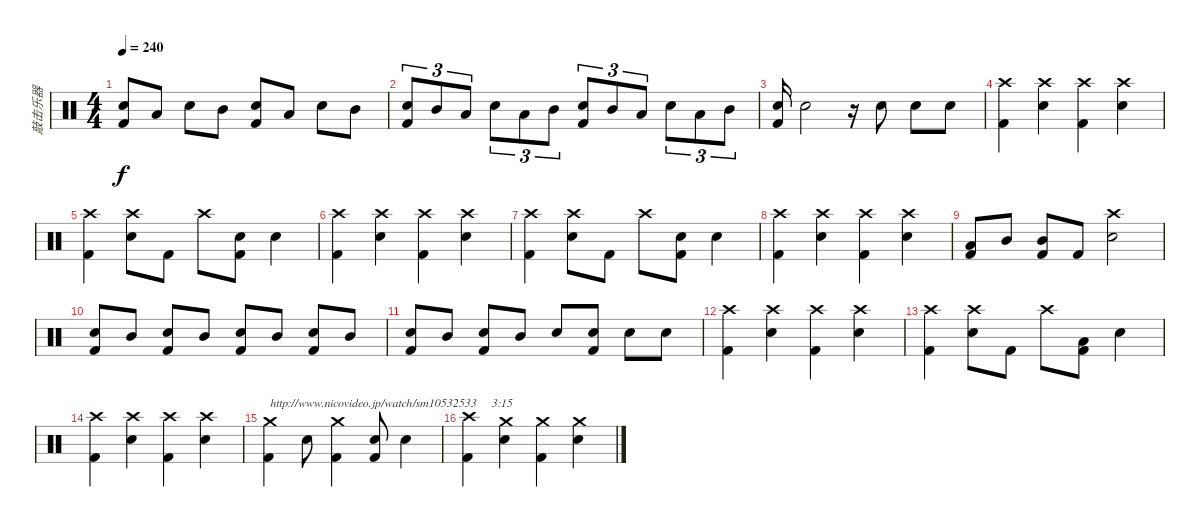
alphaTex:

\track ("敲击乐器" "敲击乐器") {instrument percussion}
\staff {score}
\articulation defaults
\ts (4 4)
\tempo 240
\clef neutral
\ks c
("Snare (hit) 2" "Kick (hit) 2").8{dy f} "Low Tom (hit)".8 "Electric Snare (hit)".8 "Mid Tom (hit)".8 ("Snare (hit) 2" "Kick (hit) 2").8 "Low Tom (hit)".8 "Electric Snare (hit)".8 "Mid Tom (hit)".8 |
("Snare (hit) 2" "Kick (hit) 2").8{tu (3 2)} "Mid Tom (hit)".8{tu (3 2)} "Low Tom (hit)".8{tu (3 2)} "Electric Snare (hit)".8{tu (3 2)} "Low Tom (hit)".8{tu (3 2)} "Mid Tom (hit)".8{tu (3 2)} ("Snare (hit) 2" "Kick (hit) 2").8{tu (3 2)} "Mid Tom (hit)".8{tu (3 2)} "Low Tom (hit)".8{tu (3 2)} "Electric Snare (hit)".8{tu (3 2)} "Low Tom (hit)".8{tu (3 2)} "Mid Tom (hit)".8{tu (3 2)} |
("Electric Snare (hit)" "Kick (hit) 2").16 "Electric Snare (hit)".2 r.16 "Electric Snare (hit)".8 "Electric Snare (hit)".8 "Electric Snare (hit)".8 |
("Crash high (hit)" "Kick (hit) 2").4 ("Crash high (hit)" "Electric Snare (hit)").4 ("Crash high (hit)" "Kick (hit) 2").4 ("Crash high (hit)" "Electric Snare (hit)").4 |
("Crash high (hit)" "Kick (hit) 2").4 ("Crash high (hit)" "Electric Snare (hit)").8 "Kick (hit) 2".8 "Crash high (hit)".8 ("Snare (hit) 2" "Kick (hit) 2").8 "Electric Snare (hit)".4 |
("Crash high (hit)" "Kick (hit) 2").4 ("Crash high (hit)" "Electric Snare (hit)").4 ("Crash high (hit)" "Kick (hit) 2").4 ("Crash high (hit)" "Electric Snare (hit)").4 |
("Crash high (hit)" "Kick (hit) 2").4 ("Crash high (hit)" "Electric Snare (hit)").8 "Kick (hit) 2".8 "Crash high (hit)".8 ("Snare (hit) 2" "Kick (hit) 2").8 "Electric Snare (hit)".4 |
("Crash high (hit)" "Kick (hit) 2").4 ("Crash high (hit)" "Electric Snare (hit)").4 ("Crash high (hit)" "Kick (hit) 2").4 ("Crash high (hit)" "Electric Snare (hit)").4 |
("Low Tom (hit)" "Kick (hit) 2").8 "Mid Tom (hit)".8 ("Mid Tom (hit)" "Kick (hit) 2").8 "Kick (hit) 2".8 ("Crash high (hit)" "Electric Snare (hit)").2 |
("Electric Snare (hit)" "Kick (hit) 2").8 "Mid Tom (hit)".8 ("Electric Snare (hit)" "Kick (hit) 2").8 "Mid Tom (hit)".8 ("Electric Snare (hit)" "Kick (hit) 2").8 "Mid Tom (hit)".8 ("Electric Snare (hit)" "Kick (hit) 2").8 "Mid Tom (hit)".8 |
("Electric Snare (hit)" "Kick (hit) 2").8 "Mid Tom (hit)".8 ("Electric Snare (hit)" "Kick (hit) 2").8 "Mid Tom (hit)".8 "Electric Snare (hit)".8 ("Electric Snare (hit)" "Kick (hit) 2").8 "Electric Snare (hit)".8 "Electric Snare (hit)".8 |
("Crash high (hit)" "Kick (hit) 2").4 ("Crash high (hit)" "Electric Snare (hit)").4 ("Crash high (hit)" "Kick (hit) 2").4 ("Crash high (hit)" "Electric Snare (hit)").4 |
("Crash high (hit)" "Kick (hit) 2").4 ("Crash high (hit)" "Electric Snare (hit)").8 "Kick (hit) 2".8 "Crash high (hit)".8 ("Low Tom (hit)" "Kick (hit) 2").8 "Electric Snare (hit)".4 |
("Crash high (hit)" "Kick (hit) 2").4 ("Crash high (hit)" "Electric Snare (hit)").4 ("Crash high (hit)" "Kick (hit) 2").4 ("Crash high (hit)" "Electric Snare (hit)").4 |
("Crash medium (hit)" "Kick (hit) 2").4{txt "http://www.nicovideo.jp/watch/sm10532533     3:15"} "Electric Snare (hit)".8 ("Crash medium (hit)" "Kick (hit) 2").4 ("Electric Snare (hit)" "Kick (hit) 2").8 "Electric Snare (hit)".4 |
("Crash high (hit)" "Kick (hit) 2").4 ("Crash medium (hit)" "Electric Snare (hit)").4 ("Crash medium (hit)" "Kick (hit) 2").4 ("Crash medium (hit)" "Electric Snare (hit)").4
